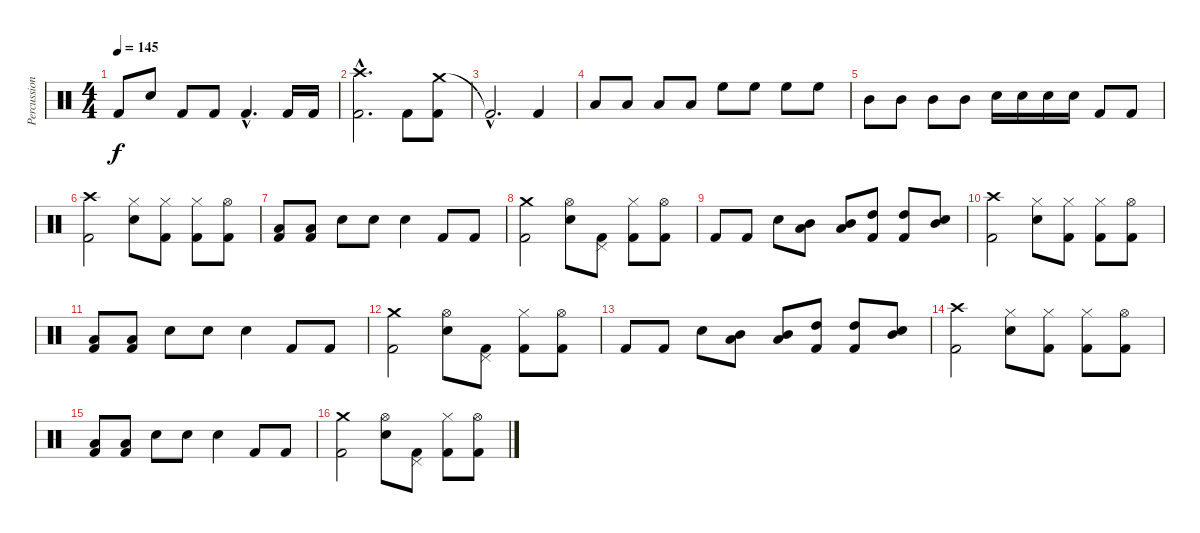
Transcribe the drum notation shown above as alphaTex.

\track ("Percussion" "Percussion") {instrument percussion}
\staff {score}
\articulation defaults
\ts (4 4)
\tempo 145
\clef neutral
\ks c "Kick (hit) 2".8{dy f} "Snare (hit) 2".8 "Kick (hit) 2".8 "Kick (hit) 2".8 "Kick (hit) 2"{hac}.4{d} "Kick (hit) 2".16 "Kick (hit) 2".16
|
("Crash high (hit)"{hac} "Kick (hit) 2"{hac}).2{d} "Kick (hit) 2".8 ("Crash medium (hit)" "Kick (hit) 2").8 |
"Kick (hit) 2"{hac t}.2{d} "Kick (hit) 2".4 |
"Low Tom (hit)".8 "Low Tom (hit)".8 "Low Tom (hit)".8 "Low Tom (hit)".8 "High Floor Tom (hit)".8 "High Floor Tom (hit)".8 "High Floor Tom (hit)".8 "High Floor Tom (hit)".8 |
"Mid Tom (hit)".8 "Mid Tom (hit)".8 "Mid Tom (hit)".8 "Mid Tom (hit)".8 "Snare (hit) 2".16 "Snare (hit) 2".16 "Snare (hit) 2".16 "Snare (hit) 2".16 "Kick (hit) 2".8 "Kick (hit) 2".8 |
("Crash high (hit)" "Kick (hit) 2").2 ("Hi-Hat (closed)" "Snare (hit) 2").8 ("Hi-Hat (closed)" "Kick (hit) 2").8 ("Hi-Hat (closed)" "Kick (hit) 2").8 ("Hi-Hat (open)" "Kick (hit) 2").8 |
("Low Tom (hit)" "Kick (hit) 2").8 ("Low Tom (hit)" "Kick (hit) 2").8 "Snare (hit) 2".8 "Snare (hit)".8 "Snare (hit) 2".4 "Kick (hit) 2".8 "Kick (hit) 2".8 |
("Crash medium (hit)" "Kick (hit) 2").2 ("Hi-Hat (open)" "Snare (hit) 2").8 ("Pedal Hi-Hat (hit)" "Kick (hit) 2").8 ("Hi-Hat (closed)" "Kick (hit) 2").8 ("Hi-Hat (open)" "Kick (hit) 2").8 |
"Kick (hit) 2".8 "Kick (hit) 2".8 "Snare (hit) 2".8 ("Low Tom (hit)" "Mid Tom (hit)").8 ("Low Tom (hit)" "Mid Tom (hit)").8 ("High Tom (hit)" "Kick (hit) 2").8 ("High Tom (hit)" "Kick (hit) 2").8 ("Mid Tom (hit)" "Snare (hit) 2").8 |
("Crash high (hit)" "Kick (hit) 2").2 ("Hi-Hat (closed)" "Snare (hit) 2").8 ("Hi-Hat (closed)" "Kick (hit) 2").8 ("Hi-Hat (closed)" "Kick (hit) 2").8 ("Hi-Hat (open)" "Kick (hit) 2").8 |
("Low Tom (hit)" "Kick (hit) 2").8 ("Low Tom (hit)" "Kick (hit) 2").8 "Snare (hit) 2".8 "Snare (hit)".8 "Snare (hit) 2".4 "Kick (hit) 2".8 "Kick (hit) 2".8 |
("Crash medium (hit)" "Kick (hit) 2").2 ("Hi-Hat (open)" "Snare (hit) 2").8 ("Pedal Hi-Hat (hit)" "Kick (hit) 2").8 ("Hi-Hat (closed)" "Kick (hit) 2").8 ("Hi-Hat (open)" "Kick (hit) 2").8 |
"Kick (hit) 2".8 "Kick (hit) 2".8 "Snare (hit) 2".8 ("Low Tom (hit)" "Mid Tom (hit)").8 ("Low Tom (hit)" "Mid Tom (hit)").8 ("High Tom (hit)" "Kick (hit) 2").8 ("High Tom (hit)" "Kick (hit) 2").8 ("Mid Tom (hit)" "Snare (hit) 2").8 |
("Crash high (hit)" "Kick (hit) 2").2 ("Hi-Hat (closed)" "Snare (hit) 2").8 ("Hi-Hat (closed)" "Kick (hit) 2").8 ("Hi-Hat (closed)" "Kick (hit) 2").8 ("Hi-Hat (open)" "Kick (hit) 2").8 |
("Low Tom (hit)" "Kick (hit) 2").8 ("Low Tom (hit)" "Kick (hit) 2").8 "Snare (hit) 2".8 "Snare (hit)".8 "Snare (hit) 2".4 "Kick (hit) 2".8 "Kick (hit) 2".8 |
("Crash medium (hit)" "Kick (hit) 2").2 ("Hi-Hat (open)" "Snare (hit) 2").8 ("Pedal Hi-Hat (hit)" "Kick (hit) 2").8 ("Hi-Hat (closed)" "Kick (hit) 2").8 ("Hi-Hat (open)" "Kick (hit) 2").8
